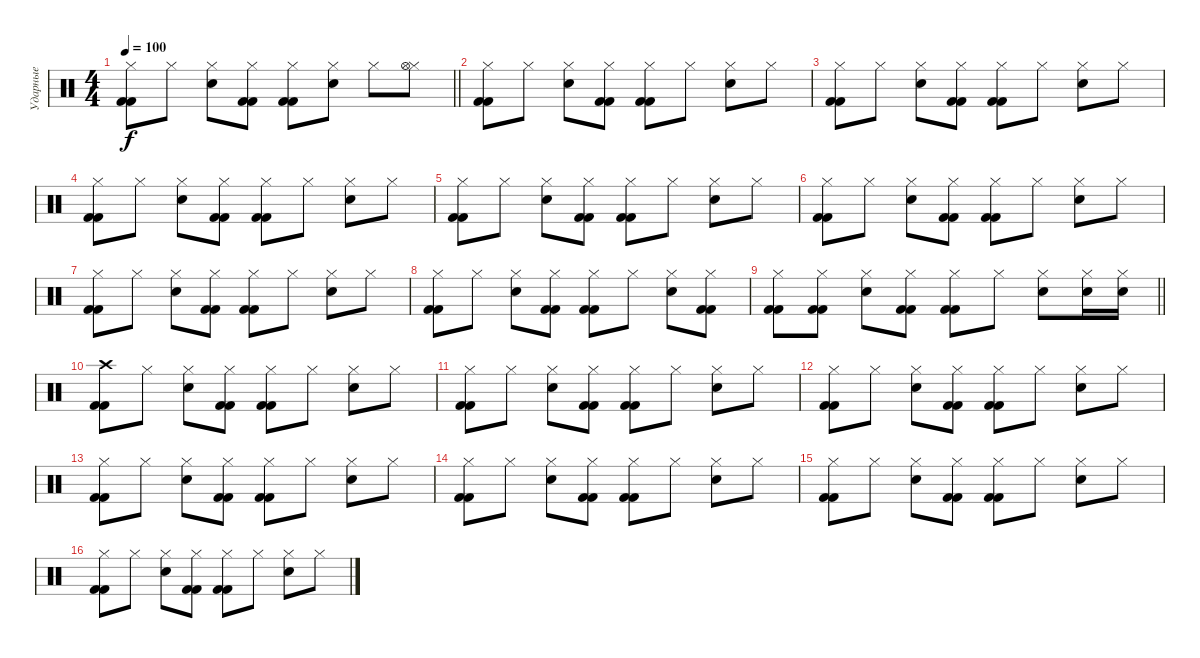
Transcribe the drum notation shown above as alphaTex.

\track ("Ударные" "Ударные") {instrument percussion}
\staff {score}
\articulation defaults
\ts (4 4)
\tempo 100
\clef neutral
\barLineRight lightlight
\ks c
("Hi-Hat (closed)" "Kick (hit) 2" "Kick (hit) 2").8{dy f} "Hi-Hat (closed)".8 ("Hi-Hat (closed)" "Snare (hit) 2").8 ("Hi-Hat (closed)" "Kick (hit) 2" "Kick (hit) 2").8 ("Hi-Hat (closed)" "Kick (hit) 2" "Kick (hit) 2").8 ("Hi-Hat (closed)" "Snare (hit) 2").8 "Hi-Hat (closed)".8 ("Hi-Hat (closed)" "Hi-Hat (open)").8 |
("Hi-Hat (closed)" "Kick (hit) 2" "Kick (hit) 2").8 "Hi-Hat (closed)".8 ("Hi-Hat (closed)" "Snare (hit) 2").8 ("Hi-Hat (closed)" "Kick (hit) 2" "Kick (hit) 2").8 ("Hi-Hat (closed)" "Kick (hit) 2" "Kick (hit) 2").8 "Hi-Hat (closed)".8 ("Hi-Hat (closed)" "Snare (hit) 2").8 "Hi-Hat (closed)".8 |
("Hi-Hat (closed)" "Kick (hit) 2" "Kick (hit) 2").8 "Hi-Hat (closed)".8 ("Hi-Hat (closed)" "Snare (hit) 2").8 ("Hi-Hat (closed)" "Kick (hit) 2" "Kick (hit) 2").8 ("Hi-Hat (closed)" "Kick (hit) 2" "Kick (hit) 2").8 "Hi-Hat (closed)".8 ("Hi-Hat (closed)" "Snare (hit) 2").8 "Hi-Hat (closed)".8 |
("Hi-Hat (closed)" "Kick (hit) 2" "Kick (hit) 2").8 "Hi-Hat (closed)".8 ("Hi-Hat (closed)" "Snare (hit) 2").8 ("Hi-Hat (closed)" "Kick (hit) 2" "Kick (hit) 2").8 ("Hi-Hat (closed)" "Kick (hit) 2" "Kick (hit) 2").8 "Hi-Hat (closed)".8 ("Hi-Hat (closed)" "Snare (hit) 2").8 "Hi-Hat (closed)".8 |
("Hi-Hat (closed)" "Kick (hit) 2" "Kick (hit) 2").8 "Hi-Hat (closed)".8 ("Hi-Hat (closed)" "Snare (hit) 2").8 ("Hi-Hat (closed)" "Kick (hit) 2" "Kick (hit) 2").8 ("Hi-Hat (closed)" "Kick (hit) 2" "Kick (hit) 2").8 "Hi-Hat (closed)".8 ("Hi-Hat (closed)" "Snare (hit) 2").8 "Hi-Hat (closed)".8 |
("Hi-Hat (closed)" "Kick (hit) 2" "Kick (hit) 2").8 "Hi-Hat (closed)".8 ("Hi-Hat (closed)" "Snare (hit) 2").8 ("Hi-Hat (closed)" "Kick (hit) 2" "Kick (hit) 2").8 ("Hi-Hat (closed)" "Kick (hit) 2" "Kick (hit) 2").8 "Hi-Hat (closed)".8 ("Hi-Hat (closed)" "Snare (hit) 2").8 "Hi-Hat (closed)".8 |
("Hi-Hat (closed)" "Kick (hit) 2" "Kick (hit) 2").8 "Hi-Hat (closed)".8 ("Hi-Hat (closed)" "Snare (hit) 2").8 ("Hi-Hat (closed)" "Kick (hit) 2" "Kick (hit) 2").8 ("Hi-Hat (closed)" "Kick (hit) 2" "Kick (hit) 2").8 "Hi-Hat (closed)".8 ("Hi-Hat (closed)" "Snare (hit) 2").8 "Hi-Hat (closed)".8 |
("Hi-Hat (closed)" "Kick (hit) 2" "Kick (hit) 2").8 "Hi-Hat (closed)".8 ("Hi-Hat (closed)" "Snare (hit) 2").8 ("Hi-Hat (closed)" "Kick (hit) 2" "Kick (hit) 2").8 ("Hi-Hat (closed)" "Kick (hit) 2" "Kick (hit) 2").8 "Hi-Hat (closed)".8 ("Hi-Hat (closed)" "Snare (hit) 2").8 ("Hi-Hat (closed)" "Kick (hit) 2" "Kick (hit) 2").8 |
\barLineRight lightlight
("Hi-Hat (closed)" "Kick (hit) 2" "Kick (hit) 2").8 ("Hi-Hat (closed)" "Kick (hit) 2" "Kick (hit) 2").8 ("Hi-Hat (closed)" "Snare (hit) 2").8 ("Hi-Hat (closed)" "Kick (hit) 2" "Kick (hit) 2").8 ("Hi-Hat (closed)" "Kick (hit) 2" "Kick (hit) 2").8 "Hi-Hat (closed)".8 ("Hi-Hat (closed)" "Snare (hit) 2").8 ("Hi-Hat (closed)" "Snare (hit) 2").16 ("Hi-Hat (closed)" "Snare (hit) 2").16 |
\section ("" "")
("Crash high (hit)" "Kick (hit) 2" "Kick (hit) 2").8 "Hi-Hat (closed)".8 ("Hi-Hat (closed)" "Snare (hit) 2").8 ("Hi-Hat (closed)" "Kick (hit) 2" "Kick (hit) 2").8 ("Hi-Hat (closed)" "Kick (hit) 2" "Kick (hit) 2").8 "Hi-Hat (closed)".8 ("Hi-Hat (closed)" "Snare (hit) 2").8 "Hi-Hat (closed)".8 |
("Hi-Hat (closed)" "Kick (hit) 2" "Kick (hit) 2").8 "Hi-Hat (closed)".8 ("Hi-Hat (closed)" "Snare (hit) 2").8 ("Hi-Hat (closed)" "Kick (hit) 2" "Kick (hit) 2").8 ("Hi-Hat (closed)" "Kick (hit) 2" "Kick (hit) 2").8 "Hi-Hat (closed)".8 ("Hi-Hat (closed)" "Snare (hit) 2").8 "Hi-Hat (closed)".8 |
("Hi-Hat (closed)" "Kick (hit) 2" "Kick (hit) 2").8 "Hi-Hat (closed)".8 ("Hi-Hat (closed)" "Snare (hit) 2").8 ("Hi-Hat (closed)" "Kick (hit) 2" "Kick (hit) 2").8 ("Hi-Hat (closed)" "Kick (hit) 2" "Kick (hit) 2").8 "Hi-Hat (closed)".8 ("Hi-Hat (closed)" "Snare (hit) 2").8 "Hi-Hat (closed)".8 |
("Hi-Hat (closed)" "Kick (hit) 2" "Kick (hit) 2").8 "Hi-Hat (closed)".8 ("Hi-Hat (closed)" "Snare (hit) 2").8 ("Hi-Hat (closed)" "Kick (hit) 2" "Kick (hit) 2").8 ("Hi-Hat (closed)" "Kick (hit) 2" "Kick (hit) 2").8 "Hi-Hat (closed)".8 ("Hi-Hat (closed)" "Snare (hit) 2").8 "Hi-Hat (closed)".8 |
("Hi-Hat (closed)" "Kick (hit) 2" "Kick (hit) 2").8 "Hi-Hat (closed)".8 ("Hi-Hat (closed)" "Snare (hit) 2").8 ("Hi-Hat (closed)" "Kick (hit) 2" "Kick (hit) 2").8 ("Hi-Hat (closed)" "Kick (hit) 2" "Kick (hit) 2").8 "Hi-Hat (closed)".8 ("Hi-Hat (closed)" "Snare (hit) 2").8 "Hi-Hat (closed)".8 |
("Hi-Hat (closed)" "Kick (hit) 2" "Kick (hit) 2").8 "Hi-Hat (closed)".8 ("Hi-Hat (closed)" "Snare (hit) 2").8 ("Hi-Hat (closed)" "Kick (hit) 2" "Kick (hit) 2").8 ("Hi-Hat (closed)" "Kick (hit) 2" "Kick (hit) 2").8 "Hi-Hat (closed)".8 ("Hi-Hat (closed)" "Snare (hit) 2").8 "Hi-Hat (closed)".8 |
("Hi-Hat (closed)" "Kick (hit) 2" "Kick (hit) 2").8 "Hi-Hat (closed)".8 ("Hi-Hat (closed)" "Snare (hit) 2").8 ("Hi-Hat (closed)" "Kick (hit) 2" "Kick (hit) 2").8 ("Hi-Hat (closed)" "Kick (hit) 2" "Kick (hit) 2").8 "Hi-Hat (closed)".8 ("Hi-Hat (closed)" "Snare (hit) 2").8 "Hi-Hat (closed)".8
